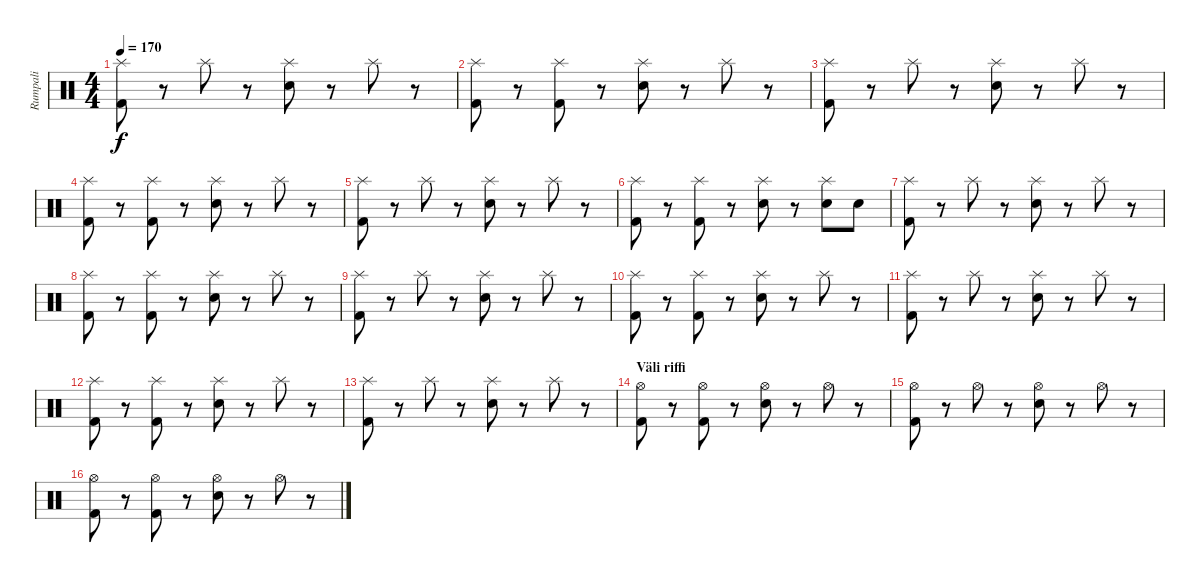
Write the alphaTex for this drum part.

\track ("Rumpali" "Rumpali") {instrument percussion}
\staff {score}
\articulation defaults
\ts (4 4)
\tempo 170
\clef neutral
\ks c
("Splash (hit)" "Kick (hit) 2").8{dy f} r.8 "Splash (hit)".8 r.8 ("Splash (hit)" "Electric Snare (hit)").8 r.8 "Splash (hit)".8 r.8 |
("Splash (hit)" "Kick (hit) 2").8 r.8 ("Splash (hit)" "Kick (hit) 2").8 r.8 ("Splash (hit)" "Electric Snare (hit)").8 r.8 "Splash (hit)".8 r.8 |
("Splash (hit)" "Kick (hit) 2").8 r.8 "Splash (hit)".8 r.8 ("Splash (hit)" "Electric Snare (hit)").8 r.8 "Splash (hit)".8 r.8 |
("Splash (hit)" "Kick (hit) 2").8 r.8 ("Splash (hit)" "Kick (hit) 2").8 r.8 ("Splash (hit)" "Electric Snare (hit)").8 r.8 "Splash (hit)".8 r.8 |
("Splash (hit)" "Kick (hit) 2").8 r.8 "Splash (hit)".8 r.8 ("Splash (hit)" "Electric Snare (hit)").8 r.8 "Splash (hit)".8 r.8 |
("Splash (hit)" "Kick (hit) 2").8 r.8 ("Splash (hit)" "Kick (hit) 2").8 r.8 ("Splash (hit)" "Electric Snare (hit)").8 r.8 ("Splash (hit)" "Electric Snare (hit)").8 "Electric Snare (hit)".8 |
("Splash (hit)" "Kick (hit) 2").8 r.8 "Splash (hit)".8 r.8 ("Splash (hit)" "Electric Snare (hit)").8 r.8 "Splash (hit)".8 r.8 |
("Splash (hit)" "Kick (hit) 2").8 r.8 ("Splash (hit)" "Kick (hit) 2").8 r.8 ("Splash (hit)" "Electric Snare (hit)").8 r.8 "Splash (hit)".8 r.8 |
("Splash (hit)" "Kick (hit) 2").8 r.8 "Splash (hit)".8 r.8 ("Splash (hit)" "Electric Snare (hit)").8 r.8 "Splash (hit)".8 r.8 |
("Splash (hit)" "Kick (hit) 2").8 r.8 ("Splash (hit)" "Kick (hit) 2").8 r.8 ("Splash (hit)" "Electric Snare (hit)").8 r.8 "Splash (hit)".8 r.8 |
("Splash (hit)" "Kick (hit) 2").8 r.8 "Splash (hit)".8 r.8 ("Splash (hit)" "Electric Snare (hit)").8 r.8 "Splash (hit)".8 r.8 |
("Splash (hit)" "Kick (hit) 2").8 r.8 ("Splash (hit)" "Kick (hit) 2").8 r.8 ("Splash (hit)" "Electric Snare (hit)").8 r.8 "Splash (hit)".8 r.8 |
("Splash (hit)" "Kick (hit) 2").8 r.8 "Splash (hit)".8 r.8 ("Splash (hit)" "Electric Snare (hit)").8 r.8 "Splash (hit)".8 r.8 |
\section ("" "Väli riffi")
("Hi-Hat (open)" "Kick (hit) 2").8 r.8 ("Hi-Hat (open)" "Kick (hit) 2").8 r.8 ("Hi-Hat (open)" "Electric Snare (hit)").8 r.8 "Hi-Hat (open)".8 r.8 |
("Hi-Hat (open)" "Kick (hit) 2").8 r.8 "Hi-Hat (open)".8 r.8 ("Hi-Hat (open)" "Electric Snare (hit)").8 r.8 "Hi-Hat (open)".8 r.8 |
("Hi-Hat (open)" "Kick (hit) 2").8 r.8 ("Hi-Hat (open)" "Kick (hit) 2").8 r.8 ("Hi-Hat (open)" "Electric Snare (hit)").8 r.8 "Hi-Hat (open)".8 r.8
